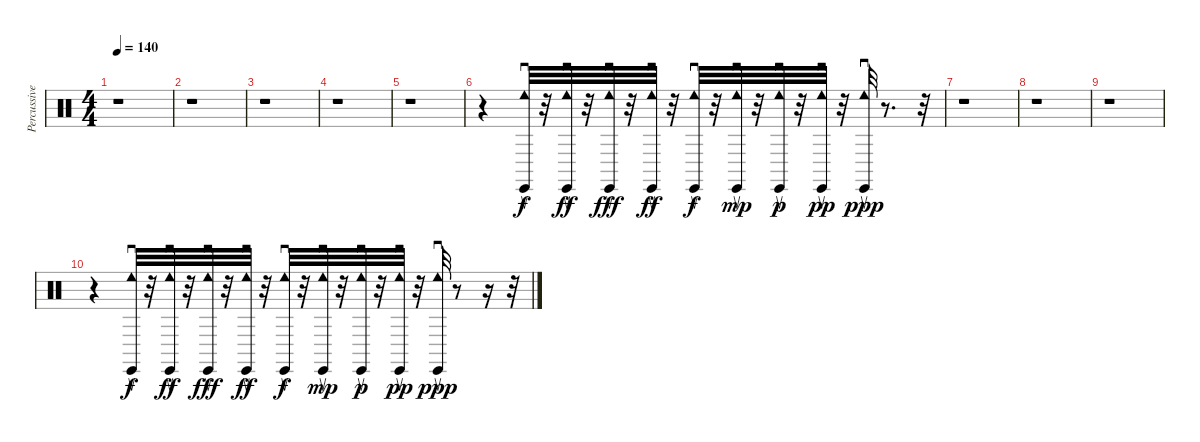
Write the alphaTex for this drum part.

\track ("Percussive Organ" "Percussive") {instrument percussion}
\staff {score}
\articulation defaults
\ts (4 4)
\tempo 140
\clef neutral
\ks c
r.1{dy ppp} |
r.1 |
r.1 |
r.1 |
r.1 |
r.4 ("Tambourine (roll)" "Cabasa (return)").32{dy f} r.32 ("Tambourine (roll)" "Cabasa (return)").32{dy ff} r.32 ("Tambourine (roll)" "Cabasa (return)").32{dy fff} r.32 ("Tambourine (roll)" "Cabasa (return)").32{dy ff} r.32 ("Tambourine (roll)" "Cabasa (return)").32{dy f} r.32 ("Tambourine (roll)" "Cabasa (return)").32{dy mp} r.32 ("Tambourine (roll)" "Cabasa (return)").32{dy p} r.32 ("Tambourine (roll)" "Cabasa (return)").32{dy pp} r.32 ("Cabasa (return)" "Tambourine (roll)").32{dy ppp} r.8{d} r.32 |
r.1 |
r.1 |
r.1 |
r.4 ("Cabasa (return)" "Tambourine (roll)").32{dy f} r.32 ("Tambourine (roll)" "Cabasa (return)").32{dy ff} r.32 ("Tambourine (roll)" "Cabasa (return)").32{dy fff} r.32 ("Tambourine (roll)" "Cabasa (return)").32{dy ff} r.32 ("Tambourine (roll)" "Cabasa (return)").32{dy f} r.32 ("Tambourine (roll)" "Cabasa (return)").32{dy mp} r.32 ("Tambourine (roll)" "Cabasa (return)").32{dy p} r.32 ("Tambourine (roll)" "Cabasa (return)").32{dy pp} r.32 ("Cabasa (return)" "Tambourine (roll)").32{dy ppp} r.8 r.16 r.32
